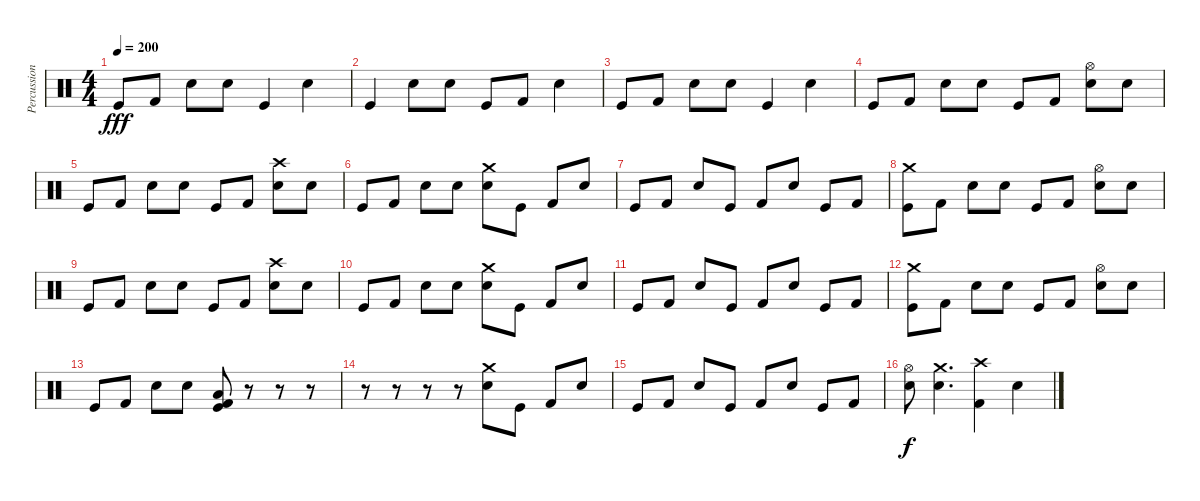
\track ("Percussion" "Percussion") {instrument percussion}
\staff {score}
\articulation defaults
\ts (4 4)
\tempo 200
\clef neutral
\ks c "Kick (hit)".8{dy fff} "Kick (hit) 2".8 "Snare (hit) 2".8 "Snare (hit) 2".8 "Kick (hit)".4 "Snare (hit) 2".4
|
"Kick (hit)".4 "Snare (hit) 2".8 "Snare (hit) 2".8 "Kick (hit)".8 "Kick (hit) 2".8 "Snare (hit) 2".4 |
"Kick (hit)".8 "Kick (hit) 2".8 "Snare (hit) 2".8 "Snare (hit) 2".8 "Kick (hit)".4 "Snare (hit) 2".4 |
"Kick (hit)".8 "Kick (hit) 2".8 "Snare (hit) 2".8 "Snare (hit) 2".8 "Kick (hit)".8 "Kick (hit) 2".8 ("Hi-Hat (open)" "Snare (hit) 2").8 "Snare (hit) 2".8 |
"Kick (hit)".8 "Kick (hit) 2".8 "Snare (hit) 2".8 "Snare (hit) 2".8 "Kick (hit)".8 "Kick (hit) 2".8 ("Crash high (hit)" "Snare (hit) 2").8 "Snare (hit) 2".8 |
"Kick (hit)".8 "Kick (hit) 2".8 "Snare (hit) 2".8 "Snare (hit) 2".8 ("Crash medium (hit)" "Snare (hit) 2").8 "Kick (hit)".8 "Kick (hit) 2".8 "Snare (hit) 2".8 |
"Kick (hit)".8 "Kick (hit) 2".8 "Snare (hit) 2".8 "Kick (hit)".8 "Kick (hit) 2".8 "Snare (hit) 2".8 "Kick (hit)".8 "Kick (hit) 2".8 |
("Crash medium (hit)" "Kick (hit)").8 "Kick (hit) 2".8 "Snare (hit) 2".8 "Snare (hit) 2".8 "Kick (hit)".8 "Kick (hit) 2".8 ("Hi-Hat (open)" "Snare (hit) 2").8 "Snare (hit) 2".8 |
"Kick (hit)".8 "Kick (hit) 2".8 "Snare (hit) 2".8 "Snare (hit) 2".8 "Kick (hit)".8 "Kick (hit) 2".8 ("Crash high (hit)" "Snare (hit) 2").8 "Snare (hit) 2".8 |
"Kick (hit)".8 "Kick (hit) 2".8 "Snare (hit) 2".8 "Snare (hit) 2".8 ("Crash medium (hit)" "Snare (hit) 2").8 "Kick (hit)".8 "Kick (hit) 2".8 "Snare (hit) 2".8 |
"Kick (hit)".8 "Kick (hit) 2".8 "Snare (hit) 2".8 "Kick (hit)".8 "Kick (hit) 2".8 "Snare (hit) 2".8 "Kick (hit)".8 "Kick (hit) 2".8 |
("Crash medium (hit)" "Kick (hit)").8 "Kick (hit) 2".8 "Snare (hit) 2".8 "Snare (hit) 2".8 "Kick (hit)".8 "Kick (hit) 2".8 ("Hi-Hat (open)" "Snare (hit) 2").8 "Snare (hit) 2".8 |
"Kick (hit)".8 "Kick (hit) 2".8 "Snare (hit) 2".8 "Snare (hit) 2".8 ("Low Floor Tom (hit)" "Kick (hit) 2" "Kick (hit)").8 r.8 r.8 r.8 |
r.8 r.8 r.8 r.8 ("Crash medium (hit)" "Snare (hit) 2").8 "Kick (hit)".8 "Kick (hit) 2".8 "Snare (hit) 2".8 |
"Kick (hit)".8 "Kick (hit) 2".8 "Snare (hit) 2".8 "Kick (hit)".8 "Kick (hit) 2".8 "Snare (hit) 2".8 "Kick (hit)".8 "Kick (hit) 2".8 |
("Hi-Hat (open)" "Snare (hit) 2").8{dy f} ("Crash medium (hit)" "Snare (hit) 2").4{d} ("Crash high (hit)" "Kick (hit) 2").4 "Snare (hit) 2".4
